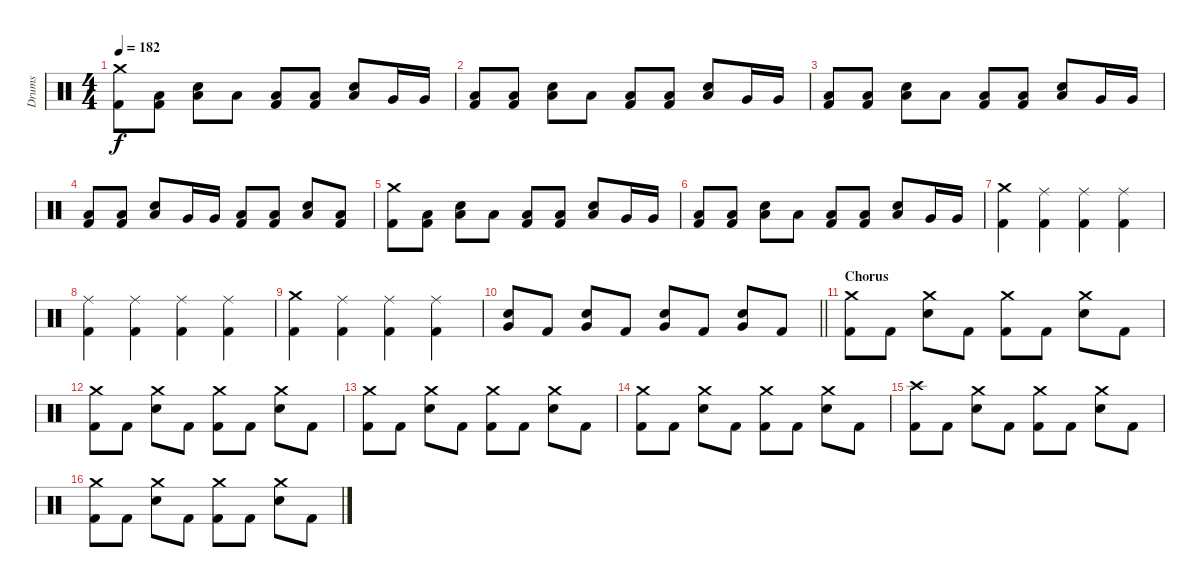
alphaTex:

\track ("Drums" "Drums") {instrument percussion}
\staff {score}
\articulation defaults
\ts (4 4)
\tempo 182
\clef neutral
\ks c
("Crash medium (hit)" "Kick (hit) 2").8{dy f} ("Low Floor Tom (hit)" "Kick (hit) 2").8 ("Low Floor Tom (hit)" "Electric Snare (hit)").8 "Low Floor Tom (hit)".8 ("Low Floor Tom (hit)" "Kick (hit) 2").8 ("Low Floor Tom (hit)" "Kick (hit) 2").8 ("Low Floor Tom (hit)" "Electric Snare (hit)").8 "Very Low Tom (hit)".16 "Very Low Tom (hit)".16 |
("Low Floor Tom (hit)" "Kick (hit) 2").8 ("Low Floor Tom (hit)" "Kick (hit) 2").8 ("Low Floor Tom (hit)" "Electric Snare (hit)").8 "Low Floor Tom (hit)".8 ("Low Floor Tom (hit)" "Kick (hit) 2").8 ("Low Floor Tom (hit)" "Kick (hit) 2").8 ("Low Floor Tom (hit)" "Electric Snare (hit)").8 "Very Low Tom (hit)".16 "Very Low Tom (hit)".16 |
("Low Floor Tom (hit)" "Kick (hit) 2").8 ("Low Floor Tom (hit)" "Kick (hit) 2").8 ("Low Floor Tom (hit)" "Electric Snare (hit)").8 "Low Floor Tom (hit)".8 ("Low Floor Tom (hit)" "Kick (hit) 2").8 ("Low Floor Tom (hit)" "Kick (hit) 2").8 ("Low Floor Tom (hit)" "Electric Snare (hit)").8 "Very Low Tom (hit)".16 "Very Low Tom (hit)".16 |
("Low Floor Tom (hit)" "Kick (hit) 2").8 ("Low Floor Tom (hit)" "Kick (hit) 2").8 ("Low Floor Tom (hit)" "Electric Snare (hit)").8 "Very Low Tom (hit)".16 "Very Low Tom (hit)".16 ("Low Floor Tom (hit)" "Kick (hit) 2").8 ("Low Floor Tom (hit)" "Kick (hit) 2").8 ("Low Floor Tom (hit)" "Electric Snare (hit)").8 ("Low Floor Tom (hit)" "Kick (hit) 2").8 |
("Crash medium (hit)" "Kick (hit) 2").8 ("Low Floor Tom (hit)" "Kick (hit) 2").8 ("Low Floor Tom (hit)" "Electric Snare (hit)").8 "Low Floor Tom (hit)".8 ("Low Floor Tom (hit)" "Kick (hit) 2").8 ("Low Floor Tom (hit)" "Kick (hit) 2").8 ("Low Floor Tom (hit)" "Electric Snare (hit)").8 "Very Low Tom (hit)".16 "Very Low Tom (hit)".16 |
("Low Floor Tom (hit)" "Kick (hit) 2").8 ("Low Floor Tom (hit)" "Kick (hit) 2").8 ("Low Floor Tom (hit)" "Electric Snare (hit)").8 "Low Floor Tom (hit)".8 ("Low Floor Tom (hit)" "Kick (hit) 2").8 ("Low Floor Tom (hit)" "Kick (hit) 2").8 ("Low Floor Tom (hit)" "Electric Snare (hit)").8 "Very Low Tom (hit)".16 "Very Low Tom (hit)".16 |
("Crash medium (hit)" "Kick (hit) 2").4 ("Ride (middle)" "Kick (hit) 2").4 ("Ride (middle)" "Kick (hit) 2").4 ("Ride (middle)" "Kick (hit) 2").4 |
("Ride (middle)" "Kick (hit) 2").4 ("Ride (middle)" "Kick (hit) 2").4 ("Ride (middle)" "Kick (hit) 2").4 ("Ride (middle)" "Kick (hit) 2").4 |
("Crash medium (hit)" "Kick (hit) 2").4 ("Ride (middle)" "Kick (hit) 2").4 ("Ride (middle)" "Kick (hit) 2").4 ("Ride (middle)" "Kick (hit) 2").4 |
\barLineRight lightlight
("Very Low Tom (hit)" "Electric Snare (hit)").8 "Kick (hit) 2".8 ("Very Low Tom (hit)" "Electric Snare (hit)").8 "Kick (hit) 2".8 ("Very Low Tom (hit)" "Electric Snare (hit)").8 "Kick (hit) 2".8 ("Very Low Tom (hit)" "Electric Snare (hit)").8 "Kick (hit) 2".8 |
\section ("" "Chorus")
("Crash medium (hit)" "Kick (hit) 2").8 "Kick (hit) 2".8 ("Crash medium (hit)" "Electric Snare (hit)").8 "Kick (hit) 2".8 ("Crash medium (hit)" "Kick (hit) 2").8 "Kick (hit) 2".8 ("Crash medium (hit)" "Electric Snare (hit)").8 "Kick (hit) 2".8 |
("Crash medium (hit)" "Kick (hit) 2").8 "Kick (hit) 2".8 ("Crash medium (hit)" "Electric Snare (hit)").8 "Kick (hit) 2".8 ("Crash medium (hit)" "Kick (hit) 2").8 "Kick (hit) 2".8 ("Crash medium (hit)" "Electric Snare (hit)").8 "Kick (hit) 2".8 |
("Crash medium (hit)" "Kick (hit) 2").8 "Kick (hit) 2".8 ("Crash medium (hit)" "Electric Snare (hit)").8 "Kick (hit) 2".8 ("Crash medium (hit)" "Kick (hit) 2").8 "Kick (hit) 2".8 ("Crash medium (hit)" "Electric Snare (hit)").8 "Kick (hit) 2".8 |
("Crash medium (hit)" "Kick (hit) 2").8 "Kick (hit) 2".8 ("Crash medium (hit)" "Electric Snare (hit)").8 "Kick (hit) 2".8 ("Crash medium (hit)" "Kick (hit) 2").8 "Kick (hit) 2".8 ("Crash medium (hit)" "Electric Snare (hit)").8 "Kick (hit) 2".8 |
("Crash high (hit)" "Kick (hit) 2").8 "Kick (hit) 2".8 ("Crash medium (hit)" "Electric Snare (hit)").8 "Kick (hit) 2".8 ("Crash medium (hit)" "Kick (hit) 2").8 "Kick (hit) 2".8 ("Crash medium (hit)" "Electric Snare (hit)").8 "Kick (hit) 2".8 |
("Crash medium (hit)" "Kick (hit) 2").8 "Kick (hit) 2".8 ("Crash medium (hit)" "Electric Snare (hit)").8 "Kick (hit) 2".8 ("Crash medium (hit)" "Kick (hit) 2").8 "Kick (hit) 2".8 ("Crash medium (hit)" "Electric Snare (hit)").8 "Kick (hit) 2".8
